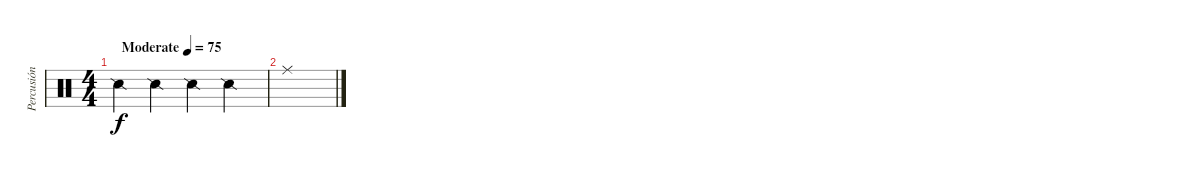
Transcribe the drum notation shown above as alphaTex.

\track ("Percusión" "Percusión") {instrument percussion}
\staff {score}
\articulation defaults
\ts (4 4)
\tempo (75 "Moderate")
\clef neutral
\ks c "Snare (side stick) 2".4{dy f} "Snare (side stick) 2".4 "Snare (side stick) 2".4 "Snare (side stick) 2".4
|
"Ride (middle)".1
